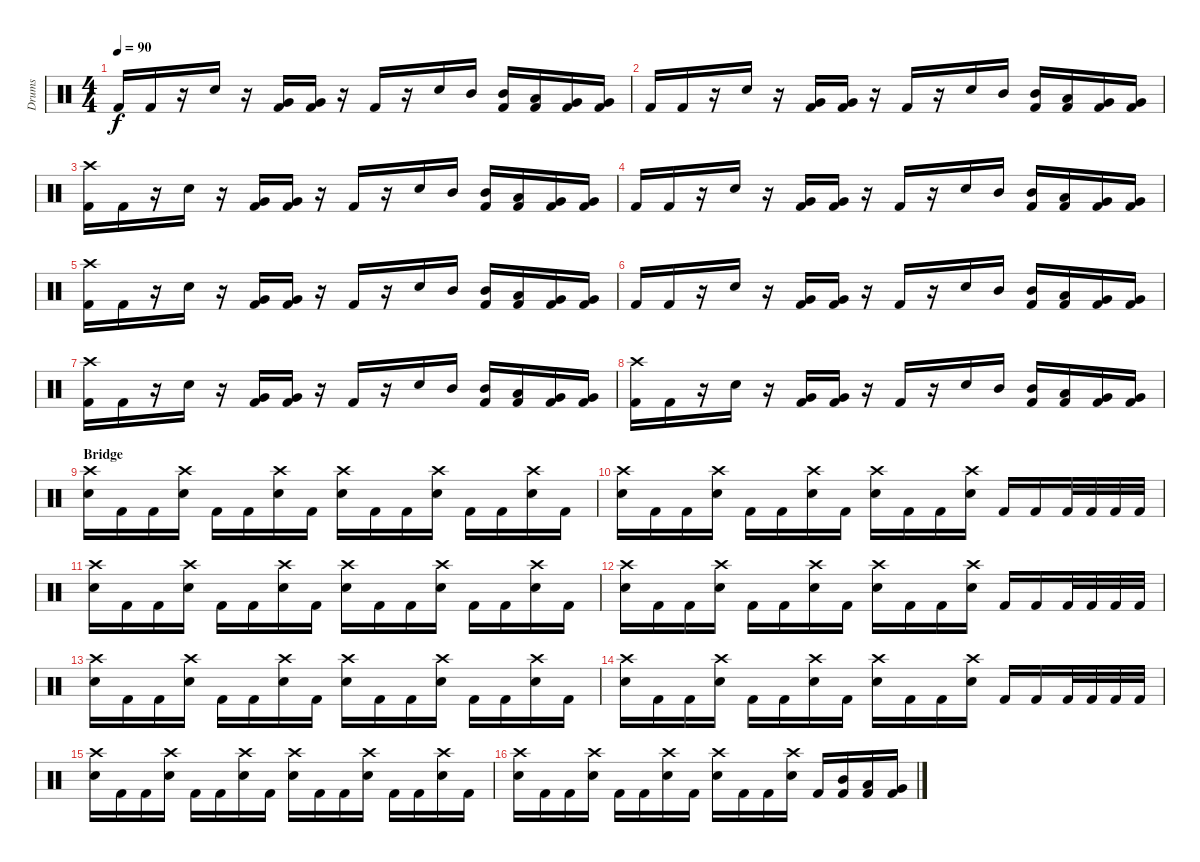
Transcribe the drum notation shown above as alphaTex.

\track ("Drums" "Drums") {instrument percussion}
\staff {score}
\articulation defaults
\ts (4 4)
\tempo 90
\clef neutral
\ks c "Kick (hit) 2".16{dy f} "Kick (hit) 2".16
r.16 "Snare (hit) 2".16 r.16 ("Kick (hit) 2" "Very Low Tom (hit)").16 ("Kick (hit) 2" "Very Low Tom (hit)").16 r.16 "Kick (hit) 2".16 r.16 "Snare (hit) 2".16 "Mid Tom (hit)".16 ("Kick (hit) 2" "Mid Tom (hit)").16 ("Kick (hit) 2" "Low Tom (hit)").16 ("Kick (hit) 2" "Very Low Tom (hit)").16 ("Kick (hit) 2" "Very Low Tom (hit)").16 |
"Kick (hit) 2".16 "Kick (hit) 2".16 r.16 "Snare (hit) 2".16 r.16 ("Kick (hit) 2" "Very Low Tom (hit)").16 ("Kick (hit) 2" "Very Low Tom (hit)").16 r.16 "Kick (hit) 2".16 r.16 "Snare (hit) 2".16 "Mid Tom (hit)".16 ("Kick (hit) 2" "Mid Tom (hit)").16 ("Kick (hit) 2" "Low Tom (hit)").16 ("Kick (hit) 2" "Very Low Tom (hit)").16 ("Kick (hit) 2" "Very Low Tom (hit)").16 |
("Kick (hit) 2" "Crash high (hit)").16 "Kick (hit) 2".16 r.16 "Snare (hit) 2".16 r.16 ("Kick (hit) 2" "Very Low Tom (hit)").16 ("Kick (hit) 2" "Very Low Tom (hit)").16 r.16 "Kick (hit) 2".16 r.16 "Snare (hit) 2".16 "Mid Tom (hit)".16 ("Kick (hit) 2" "Mid Tom (hit)").16 ("Kick (hit) 2" "Low Tom (hit)").16 ("Kick (hit) 2" "Very Low Tom (hit)").16 ("Kick (hit) 2" "Very Low Tom (hit)").16 |
"Kick (hit) 2".16 "Kick (hit) 2".16 r.16 "Snare (hit) 2".16 r.16 ("Kick (hit) 2" "Very Low Tom (hit)").16 ("Kick (hit) 2" "Very Low Tom (hit)").16 r.16 "Kick (hit) 2".16 r.16 "Snare (hit) 2".16 "Mid Tom (hit)".16 ("Kick (hit) 2" "Mid Tom (hit)").16 ("Kick (hit) 2" "Low Tom (hit)").16 ("Kick (hit) 2" "Very Low Tom (hit)").16 ("Kick (hit) 2" "Very Low Tom (hit)").16 |
("Kick (hit) 2" "Crash high (hit)").16 "Kick (hit) 2".16 r.16 "Snare (hit) 2".16 r.16 ("Kick (hit) 2" "Very Low Tom (hit)").16 ("Kick (hit) 2" "Very Low Tom (hit)").16 r.16 "Kick (hit) 2".16 r.16 "Snare (hit) 2".16 "Mid Tom (hit)".16 ("Kick (hit) 2" "Mid Tom (hit)").16 ("Kick (hit) 2" "Low Tom (hit)").16 ("Kick (hit) 2" "Very Low Tom (hit)").16 ("Kick (hit) 2" "Very Low Tom (hit)").16 |
"Kick (hit) 2".16 "Kick (hit) 2".16 r.16 "Snare (hit) 2".16 r.16 ("Kick (hit) 2" "Very Low Tom (hit)").16 ("Kick (hit) 2" "Very Low Tom (hit)").16 r.16 "Kick (hit) 2".16 r.16 "Snare (hit) 2".16 "Mid Tom (hit)".16 ("Kick (hit) 2" "Mid Tom (hit)").16 ("Kick (hit) 2" "Low Tom (hit)").16 ("Kick (hit) 2" "Very Low Tom (hit)").16 ("Kick (hit) 2" "Very Low Tom (hit)").16 |
("Kick (hit) 2" "Crash high (hit)").16 "Kick (hit) 2".16 r.16 "Snare (hit) 2".16 r.16 ("Kick (hit) 2" "Very Low Tom (hit)").16 ("Kick (hit) 2" "Very Low Tom (hit)").16 r.16 "Kick (hit) 2".16 r.16 "Snare (hit) 2".16 "Mid Tom (hit)".16 ("Kick (hit) 2" "Mid Tom (hit)").16 ("Kick (hit) 2" "Low Tom (hit)").16 ("Kick (hit) 2" "Very Low Tom (hit)").16 ("Kick (hit) 2" "Very Low Tom (hit)").16 |
("Kick (hit) 2" "Crash high (hit)").16 "Kick (hit) 2".16 r.16 "Snare (hit) 2".16 r.16 ("Kick (hit) 2" "Very Low Tom (hit)").16 ("Kick (hit) 2" "Very Low Tom (hit)").16 r.16 "Kick (hit) 2".16 r.16 "Snare (hit) 2".16 "Mid Tom (hit)".16 ("Kick (hit) 2" "Mid Tom (hit)").16 ("Kick (hit) 2" "Low Tom (hit)").16 ("Kick (hit) 2" "Very Low Tom (hit)").16 ("Kick (hit) 2" "Very Low Tom (hit)").16 |
\section ("" "Bridge")
("Snare (hit) 2" "Crash high (hit)").16 "Kick (hit) 2".16 "Kick (hit) 2".16 ("Snare (hit) 2" "Crash high (hit)").16 "Kick (hit) 2".16 "Kick (hit) 2".16 ("Snare (hit) 2" "Crash high (hit)").16 "Kick (hit) 2".16 ("Snare (hit) 2" "Crash high (hit)").16 "Kick (hit) 2".16 "Kick (hit) 2".16 ("Snare (hit) 2" "Crash high (hit)").16 "Kick (hit) 2".16 "Kick (hit) 2".16 ("Snare (hit) 2" "Crash high (hit)").16 "Kick (hit) 2".16 |
("Snare (hit) 2" "Crash high (hit)").16 "Kick (hit) 2".16 "Kick (hit) 2".16 ("Snare (hit) 2" "Crash high (hit)").16 "Kick (hit) 2".16 "Kick (hit) 2".16 ("Snare (hit) 2" "Crash high (hit)").16 "Kick (hit) 2".16 ("Snare (hit) 2" "Crash high (hit)").16 "Kick (hit) 2".16 "Kick (hit) 2".16 ("Snare (hit) 2" "Crash high (hit)").16 "Kick (hit) 2".16 "Kick (hit) 2".16 "Kick (hit) 2".32 "Kick (hit) 2".32 "Kick (hit) 2".32 "Kick (hit) 2".32 |
("Snare (hit) 2" "Crash high (hit)").16 "Kick (hit) 2".16 "Kick (hit) 2".16 ("Snare (hit) 2" "Crash high (hit)").16 "Kick (hit) 2".16 "Kick (hit) 2".16 ("Snare (hit) 2" "Crash high (hit)").16 "Kick (hit) 2".16 ("Snare (hit) 2" "Crash high (hit)").16 "Kick (hit) 2".16 "Kick (hit) 2".16 ("Snare (hit) 2" "Crash high (hit)").16 "Kick (hit) 2".16 "Kick (hit) 2".16 ("Snare (hit) 2" "Crash high (hit)").16 "Kick (hit) 2".16 |
("Snare (hit) 2" "Crash high (hit)").16 "Kick (hit) 2".16 "Kick (hit) 2".16 ("Snare (hit) 2" "Crash high (hit)").16 "Kick (hit) 2".16 "Kick (hit) 2".16 ("Snare (hit) 2" "Crash high (hit)").16 "Kick (hit) 2".16 ("Snare (hit) 2" "Crash high (hit)").16 "Kick (hit) 2".16 "Kick (hit) 2".16 ("Snare (hit) 2" "Crash high (hit)").16 "Kick (hit) 2".16 "Kick (hit) 2".16 "Kick (hit) 2".32 "Kick (hit) 2".32 "Kick (hit) 2".32 "Kick (hit) 2".32 |
("Snare (hit) 2" "Crash high (hit)").16 "Kick (hit) 2".16 "Kick (hit) 2".16 ("Snare (hit) 2" "Crash high (hit)").16 "Kick (hit) 2".16 "Kick (hit) 2".16 ("Snare (hit) 2" "Crash high (hit)").16 "Kick (hit) 2".16 ("Snare (hit) 2" "Crash high (hit)").16 "Kick (hit) 2".16 "Kick (hit) 2".16 ("Snare (hit) 2" "Crash high (hit)").16 "Kick (hit) 2".16 "Kick (hit) 2".16 ("Snare (hit) 2" "Crash high (hit)").16 "Kick (hit) 2".16 |
("Snare (hit) 2" "Crash high (hit)").16 "Kick (hit) 2".16 "Kick (hit) 2".16 ("Snare (hit) 2" "Crash high (hit)").16 "Kick (hit) 2".16 "Kick (hit) 2".16 ("Snare (hit) 2" "Crash high (hit)").16 "Kick (hit) 2".16 ("Snare (hit) 2" "Crash high (hit)").16 "Kick (hit) 2".16 "Kick (hit) 2".16 ("Snare (hit) 2" "Crash high (hit)").16 "Kick (hit) 2".16 "Kick (hit) 2".16 "Kick (hit) 2".32 "Kick (hit) 2".32 "Kick (hit) 2".32 "Kick (hit) 2".32 |
("Snare (hit) 2" "Crash high (hit)").16 "Kick (hit) 2".16 "Kick (hit) 2".16 ("Snare (hit) 2" "Crash high (hit)").16 "Kick (hit) 2".16 "Kick (hit) 2".16 ("Snare (hit) 2" "Crash high (hit)").16 "Kick (hit) 2".16 ("Snare (hit) 2" "Crash high (hit)").16 "Kick (hit) 2".16 "Kick (hit) 2".16 ("Snare (hit) 2" "Crash high (hit)").16 "Kick (hit) 2".16 "Kick (hit) 2".16 ("Snare (hit) 2" "Crash high (hit)").16 "Kick (hit) 2".16 |
("Snare (hit) 2" "Crash high (hit)").16 "Kick (hit) 2".16 "Kick (hit) 2".16 ("Snare (hit) 2" "Crash high (hit)").16 "Kick (hit) 2".16 "Kick (hit) 2".16 ("Snare (hit) 2" "Crash high (hit)").16 "Kick (hit) 2".16 ("Snare (hit) 2" "Crash high (hit)").16 "Kick (hit) 2".16 "Kick (hit) 2".16 ("Snare (hit) 2" "Crash high (hit)").16 "Kick (hit) 2".16 ("Kick (hit) 2" "Mid Tom (hit)").16 ("Kick (hit) 2" "Low Tom (hit)").16 ("Kick (hit) 2" "Very Low Tom (hit)").16
